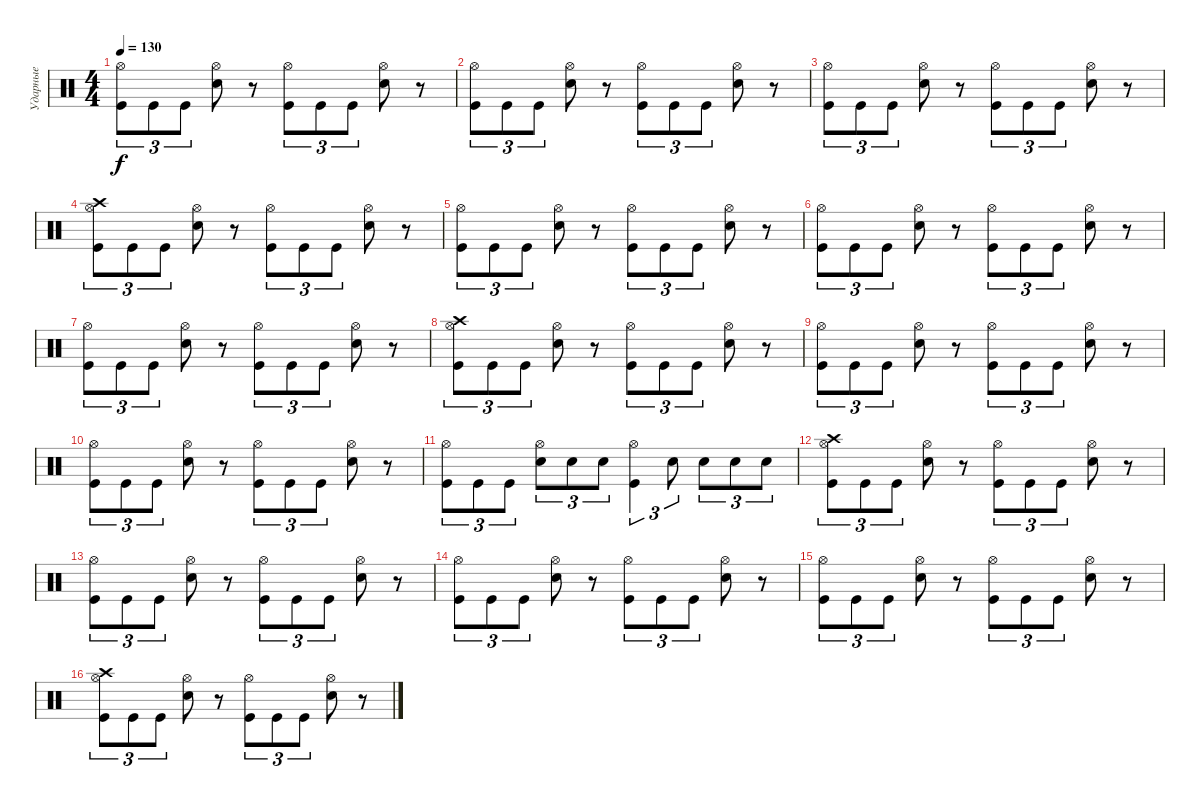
\track ("Ударные" "Ударные") {instrument percussion}
\staff {score}
\articulation defaults
\ts (4 4)
\tempo 130
\clef neutral
\ks c
("Hi-Hat (open)" "Kick (hit)").8{tu (3 2) dy f} "Kick (hit)".8{tu (3 2)} "Kick (hit)".8{tu (3 2)} ("Hi-Hat (open)" "Electric Snare (hit)").8 r.8 ("Hi-Hat (open)" "Kick (hit)").8{tu (3 2)} "Kick (hit)".8{tu (3 2)} "Kick (hit)".8{tu (3 2)} ("Hi-Hat (open)" "Electric Snare (hit)").8 r.8 |
("Hi-Hat (open)" "Kick (hit)").8{tu (3 2)} "Kick (hit)".8{tu (3 2)} "Kick (hit)".8{tu (3 2)} ("Hi-Hat (open)" "Electric Snare (hit)").8 r.8 ("Hi-Hat (open)" "Kick (hit)").8{tu (3 2)} "Kick (hit)".8{tu (3 2)} "Kick (hit)".8{tu (3 2)} ("Hi-Hat (open)" "Electric Snare (hit)").8 r.8 |
("Hi-Hat (open)" "Kick (hit)").8{tu (3 2)} "Kick (hit)".8{tu (3 2)} "Kick (hit)".8{tu (3 2)} ("Hi-Hat (open)" "Electric Snare (hit)").8 r.8 ("Hi-Hat (open)" "Kick (hit)").8{tu (3 2)} "Kick (hit)".8{tu (3 2)} "Kick (hit)".8{tu (3 2)} ("Hi-Hat (open)" "Electric Snare (hit)").8 r.8 |
("Crash high (hit)" "Hi-Hat (open)" "Kick (hit)").8{tu (3 2)} "Kick (hit)".8{tu (3 2)} "Kick (hit)".8{tu (3 2)} ("Hi-Hat (open)" "Electric Snare (hit)").8 r.8 ("Hi-Hat (open)" "Kick (hit)").8{tu (3 2)} "Kick (hit)".8{tu (3 2)} "Kick (hit)".8{tu (3 2)} ("Hi-Hat (open)" "Electric Snare (hit)").8 r.8 |
("Hi-Hat (open)" "Kick (hit)").8{tu (3 2)} "Kick (hit)".8{tu (3 2)} "Kick (hit)".8{tu (3 2)} ("Hi-Hat (open)" "Electric Snare (hit)").8 r.8 ("Hi-Hat (open)" "Kick (hit)").8{tu (3 2)} "Kick (hit)".8{tu (3 2)} "Kick (hit)".8{tu (3 2)} ("Hi-Hat (open)" "Electric Snare (hit)").8 r.8 |
("Hi-Hat (open)" "Kick (hit)").8{tu (3 2)} "Kick (hit)".8{tu (3 2)} "Kick (hit)".8{tu (3 2)} ("Hi-Hat (open)" "Electric Snare (hit)").8 r.8 ("Hi-Hat (open)" "Kick (hit)").8{tu (3 2)} "Kick (hit)".8{tu (3 2)} "Kick (hit)".8{tu (3 2)} ("Hi-Hat (open)" "Electric Snare (hit)").8 r.8 |
("Hi-Hat (open)" "Kick (hit)").8{tu (3 2)} "Kick (hit)".8{tu (3 2)} "Kick (hit)".8{tu (3 2)} ("Hi-Hat (open)" "Electric Snare (hit)").8 r.8 ("Hi-Hat (open)" "Kick (hit)").8{tu (3 2)} "Kick (hit)".8{tu (3 2)} "Kick (hit)".8{tu (3 2)} ("Hi-Hat (open)" "Electric Snare (hit)").8 r.8 |
("Crash high (hit)" "Hi-Hat (open)" "Kick (hit)").8{tu (3 2)} "Kick (hit)".8{tu (3 2)} "Kick (hit)".8{tu (3 2)} ("Hi-Hat (open)" "Electric Snare (hit)").8 r.8 ("Hi-Hat (open)" "Kick (hit)").8{tu (3 2)} "Kick (hit)".8{tu (3 2)} "Kick (hit)".8{tu (3 2)} ("Hi-Hat (open)" "Electric Snare (hit)").8 r.8 |
("Hi-Hat (open)" "Kick (hit)").8{tu (3 2)} "Kick (hit)".8{tu (3 2)} "Kick (hit)".8{tu (3 2)} ("Hi-Hat (open)" "Electric Snare (hit)").8 r.8 ("Hi-Hat (open)" "Kick (hit)").8{tu (3 2)} "Kick (hit)".8{tu (3 2)} "Kick (hit)".8{tu (3 2)} ("Hi-Hat (open)" "Electric Snare (hit)").8 r.8 |
("Hi-Hat (open)" "Kick (hit)").8{tu (3 2)} "Kick (hit)".8{tu (3 2)} "Kick (hit)".8{tu (3 2)} ("Hi-Hat (open)" "Electric Snare (hit)").8 r.8 ("Hi-Hat (open)" "Kick (hit)").8{tu (3 2)} "Kick (hit)".8{tu (3 2)} "Kick (hit)".8{tu (3 2)} ("Hi-Hat (open)" "Electric Snare (hit)").8 r.8 |
("Hi-Hat (open)" "Kick (hit)").8{tu (3 2)} "Kick (hit)".8{tu (3 2)} "Kick (hit)".8{tu (3 2)} ("Hi-Hat (open)" "Electric Snare (hit)").8{tu (3 2)} "Electric Snare (hit)".8{tu (3 2)} "Electric Snare (hit)".8{tu (3 2)} ("Hi-Hat (open)" "Kick (hit)").4{tu (3 2)} "Electric Snare (hit)".8{tu (3 2)} "Electric Snare (hit)".8{tu (3 2)} "Electric Snare (hit)".8{tu (3 2)} "Electric Snare (hit)".8{tu (3 2)} |
("Crash high (hit)" "Hi-Hat (open)" "Kick (hit)").8{tu (3 2)} "Kick (hit)".8{tu (3 2)} "Kick (hit)".8{tu (3 2)} ("Hi-Hat (open)" "Electric Snare (hit)").8 r.8 ("Hi-Hat (open)" "Kick (hit)").8{tu (3 2)} "Kick (hit)".8{tu (3 2)} "Kick (hit)".8{tu (3 2)} ("Hi-Hat (open)" "Electric Snare (hit)").8 r.8 |
("Hi-Hat (open)" "Kick (hit)").8{tu (3 2)} "Kick (hit)".8{tu (3 2)} "Kick (hit)".8{tu (3 2)} ("Hi-Hat (open)" "Electric Snare (hit)").8 r.8 ("Hi-Hat (open)" "Kick (hit)").8{tu (3 2)} "Kick (hit)".8{tu (3 2)} "Kick (hit)".8{tu (3 2)} ("Hi-Hat (open)" "Electric Snare (hit)").8 r.8 |
("Hi-Hat (open)" "Kick (hit)").8{tu (3 2)} "Kick (hit)".8{tu (3 2)} "Kick (hit)".8{tu (3 2)} ("Hi-Hat (open)" "Electric Snare (hit)").8 r.8 ("Hi-Hat (open)" "Kick (hit)").8{tu (3 2)} "Kick (hit)".8{tu (3 2)} "Kick (hit)".8{tu (3 2)} ("Hi-Hat (open)" "Electric Snare (hit)").8 r.8 |
("Hi-Hat (open)" "Kick (hit)").8{tu (3 2)} "Kick (hit)".8{tu (3 2)} "Kick (hit)".8{tu (3 2)} ("Hi-Hat (open)" "Electric Snare (hit)").8 r.8 ("Hi-Hat (open)" "Kick (hit)").8{tu (3 2)} "Kick (hit)".8{tu (3 2)} "Kick (hit)".8{tu (3 2)} ("Hi-Hat (open)" "Electric Snare (hit)").8 r.8 |
("Crash high (hit)" "Hi-Hat (open)" "Kick (hit)").8{tu (3 2)} "Kick (hit)".8{tu (3 2)} "Kick (hit)".8{tu (3 2)} ("Hi-Hat (open)" "Electric Snare (hit)").8 r.8 ("Hi-Hat (open)" "Kick (hit)").8{tu (3 2)} "Kick (hit)".8{tu (3 2)} "Kick (hit)".8{tu (3 2)} ("Hi-Hat (open)" "Electric Snare (hit)").8 r.8
